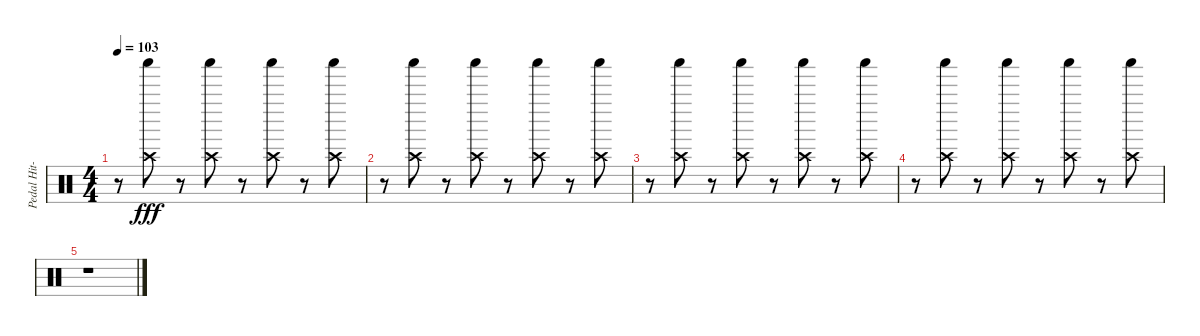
\track ("Pedal Hit-Hat" "Pedal Hit-") {instrument percussion}
\staff {score}
\articulation defaults
\ts (4 4)
\tempo 103
\clef neutral
\ks c
r.8{dy fff} ("Crash high (hit)" "Shaker (hit)").8 r.8 ("Crash high (hit)" "Shaker (hit)").8 r.8 ("Crash high (hit)" "Shaker (hit)").8 r.8 ("Crash high (hit)" "Shaker (hit)").8 |
r.8 ("Crash high (hit)" "Shaker (hit)").8 r.8 ("Crash high (hit)" "Shaker (hit)").8 r.8 ("Crash high (hit)" "Shaker (hit)").8 r.8 ("Crash high (hit)" "Shaker (hit)").8 |
r.8 ("Crash high (hit)" "Shaker (hit)").8 r.8 ("Crash high (hit)" "Shaker (hit)").8 r.8 ("Crash high (hit)" "Shaker (hit)").8 r.8 ("Crash high (hit)" "Shaker (hit)").8 |
r.8 ("Crash high (hit)" "Shaker (hit)").8 r.8 ("Crash high (hit)" "Shaker (hit)").8 r.8 ("Crash high (hit)" "Shaker (hit)").8 r.8 ("Crash high (hit)" "Shaker (hit)").8 |
r.1
